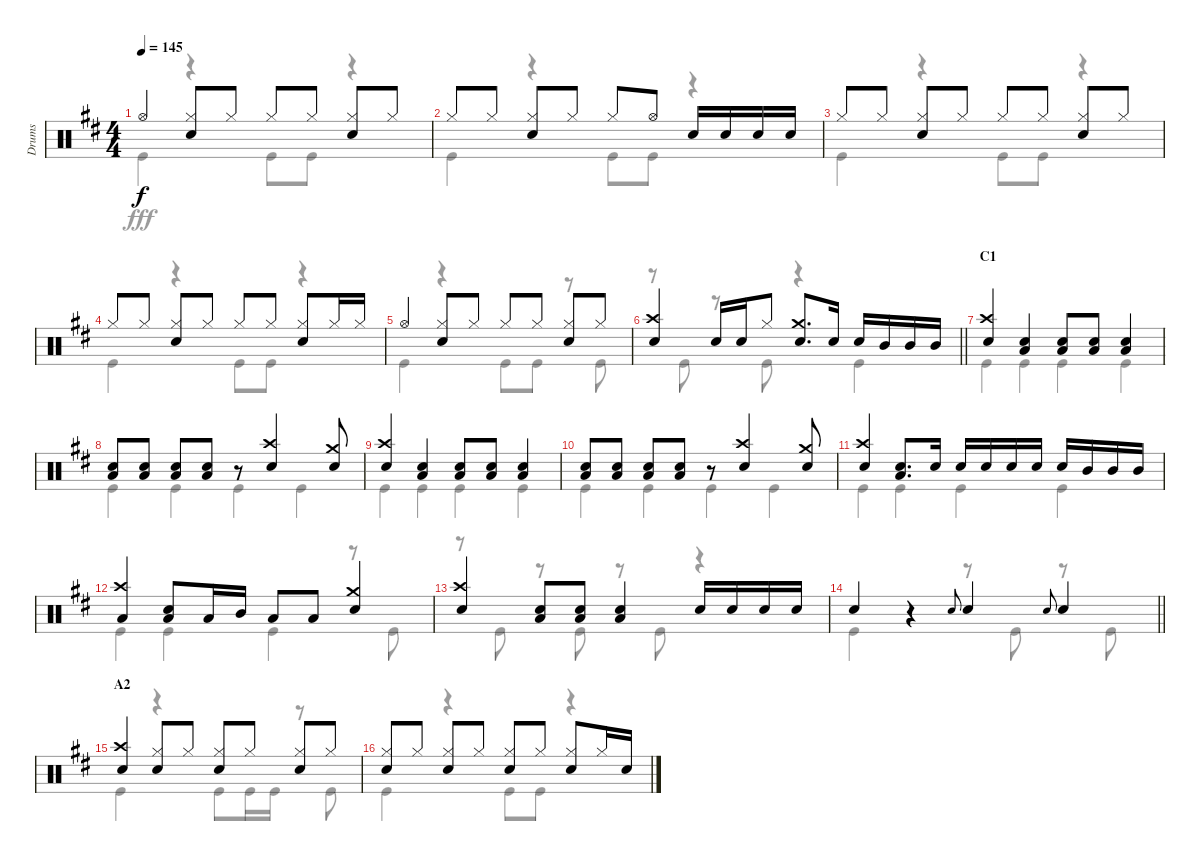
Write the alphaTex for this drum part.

\track ("Drums" "Drums") {instrument percussion}
\staff {score}
\articulation defaults
\voice
\ts (4 4)
\tempo 145
\clef neutral
\ks d "Hi-Hat (open)".4{dy f}
("Hi-Hat (closed)" "Snare (hit) 2").8 "Hi-Hat (closed)".8 "Hi-Hat (closed)".8 "Hi-Hat (closed)".8 ("Hi-Hat (closed)" "Snare (hit) 2").8 "Hi-Hat (closed)".8 |
"Hi-Hat (closed)".8 "Hi-Hat (closed)".8 ("Hi-Hat (closed)" "Snare (hit) 2").8 "Hi-Hat (closed)".8 "Hi-Hat (closed)".8 "Hi-Hat (open)".8 "Snare (hit) 2".16 "Snare (hit) 2".16 "Snare (hit) 2".16 "Snare (hit) 2".16 |
"Hi-Hat (closed)".8 "Hi-Hat (closed)".8 ("Hi-Hat (closed)" "Snare (hit) 2").8 "Hi-Hat (closed)".8 "Hi-Hat (closed)".8 "Hi-Hat (closed)".8 ("Hi-Hat (closed)" "Snare (hit) 2").8 "Hi-Hat (closed)".8 |
"Hi-Hat (closed)".8 "Hi-Hat (closed)".8 ("Hi-Hat (closed)" "Snare (hit) 2").8 "Hi-Hat (closed)".8 "Hi-Hat (closed)".8 "Hi-Hat (closed)".8 ("Hi-Hat (closed)" "Snare (hit) 2").8 "Hi-Hat (closed)".16 "Hi-Hat (closed)".16 |
"Hi-Hat (open)".4 ("Hi-Hat (closed)" "Snare (hit) 2").8 "Hi-Hat (closed)".8 "Hi-Hat (closed)".8 "Hi-Hat (closed)".8 ("Hi-Hat (closed)" "Snare (hit) 2").8 "Hi-Hat (closed)".8 |
\barLineRight lightlight
("Crash high (hit)" "Snare (hit) 2").4 "Snare (hit) 2".16 "Snare (hit) 2".16 "Hi-Hat (closed)".8 ("Crash medium (hit)" "Snare (hit) 2").8{d} "Snare (hit) 2".16 "Snare (hit) 2".16 "Mid Tom (hit)".16 "Mid Tom (hit)".16 "Mid Tom (hit)".16 |
\section ("" "C1")
("Crash high (hit)" "Snare (hit) 2").4 ("Snare (hit) 2" "Low Tom (hit)").4 ("Snare (hit) 2" "Low Tom (hit)").8 ("Snare (hit) 2" "Low Tom (hit)").8 ("Snare (hit) 2" "Low Tom (hit)").4 |
("Snare (hit) 2" "Low Tom (hit)").8 ("Snare (hit) 2" "Low Tom (hit)").8 ("Snare (hit) 2" "Low Tom (hit)").8 ("Snare (hit) 2" "Low Tom (hit)").8 r.8 ("Crash high (hit)" "Snare (hit) 2").4 ("Crash medium (hit)" "Snare (hit) 2").8 |
("Crash high (hit)" "Snare (hit) 2").4 ("Snare (hit) 2" "Low Tom (hit)").4 ("Snare (hit) 2" "Low Tom (hit)").8 ("Snare (hit) 2" "Low Tom (hit)").8 ("Snare (hit) 2" "Low Tom (hit)").4 |
("Snare (hit) 2" "Low Tom (hit)").8 ("Snare (hit) 2" "Low Tom (hit)").8 ("Snare (hit) 2" "Low Tom (hit)").8 ("Snare (hit) 2" "Low Tom (hit)").8 r.8 ("Crash high (hit)" "Snare (hit) 2").4 ("Crash medium (hit)" "Snare (hit) 2").8 |
("Crash high (hit)" "Snare (hit) 2").4 ("Low Tom (hit)" "Snare (hit) 2").8{d} "Snare (hit) 2".16 "Snare (hit) 2".16 "Snare (hit) 2".16 "Snare (hit) 2".16 "Snare (hit) 2".16 "Snare (hit) 2".16 "Mid Tom (hit)".16 "Mid Tom (hit)".16 "Mid Tom (hit)".16 |
("Crash high (hit)" "Low Tom (hit)").4 ("Snare (hit) 2" "Low Tom (hit)").8 "Low Tom (hit)".16 "Mid Tom (hit)".16 "Low Tom (hit)".8 "Low Tom (hit)".8 ("Snare (hit) 2" "Crash medium (hit)").4 |
("Crash high (hit)" "Snare (hit) 2").4 ("Snare (hit) 2" "Low Tom (hit)").8 ("Snare (hit) 2" "Low Tom (hit)").8 ("Snare (hit) 2" "Low Tom (hit)").4 "Snare (hit) 2".16 "Snare (hit) 2".16 "Snare (hit) 2".16 "Snare (hit) 2".16 |
\barLineRight lightlight "Snare (hit) 2".4
r.4 "Snare (hit) 2".8{gr onbeat} "Snare (hit) 2".4 "Snare (hit) 2".8{gr onbeat} "Snare (hit) 2".4 |
\section ("" "A2")
("Crash high (hit)" "Snare (hit) 2").4 ("Hi-Hat (closed)" "Snare (hit) 2").8 "Hi-Hat (closed)".8 ("Hi-Hat (closed)" "Snare (hit) 2").8 "Hi-Hat (closed)".8 ("Hi-Hat (closed)" "Snare (hit) 2").8 "Hi-Hat (closed)".8 |
("Hi-Hat (closed)" "Snare (hit) 2").8 "Hi-Hat (closed)".8 ("Hi-Hat (closed)" "Snare (hit) 2").8 "Hi-Hat (closed)".8 ("Hi-Hat (closed)" "Snare (hit) 2").8 "Hi-Hat (closed)".8 ("Hi-Hat (closed)" "Snare (hit) 2").8 "Hi-Hat (closed)".16 "Snare (hit) 2".16
\voice
\clef neutral
\ottava regular
\simile none
\ks d "Kick (hit)".4{dy fff}
r.4 "Kick (hit)".8 "Kick (hit)".8 r.4 |
"Kick (hit)".4 r.4 "Kick (hit)".8 "Kick (hit)".8 r.4 |
"Kick (hit)".4 r.4 "Kick (hit)".8 "Kick (hit)".8 r.4 |
"Kick (hit)".4 r.4 "Kick (hit)".8 "Kick (hit)".8 r.4 |
"Kick (hit)".4 r.4 "Kick (hit)".8 "Kick (hit)".8 r.8 "Kick (hit)".8 |
\barLineRight lightlight
r.8 "Kick (hit)".8 r.8 "Kick (hit)".8 r.4 "Kick (hit)".4 |
"Kick (hit)".4 "Kick (hit)".4 "Kick (hit)".4 "Kick (hit)".4 |
"Kick (hit)".4 "Kick (hit)".4 "Kick (hit)".4 "Kick (hit)".4 |
"Kick (hit)".4 "Kick (hit)".4 "Kick (hit)".4 "Kick (hit)".4 |
"Kick (hit)".4 "Kick (hit)".4 "Kick (hit)".4 "Kick (hit)".4 |
"Kick (hit)".4 "Kick (hit)".4 "Kick (hit)".4 "Kick (hit)".4 |
"Kick (hit)".4 "Kick (hit)".4 "Kick (hit)".4 r.8 "Kick (hit)".8 |
r.8 "Kick (hit)".8 r.8 "Kick (hit)".8 r.8 "Kick (hit)".8 r.4 |
\barLineRight lightlight "Kick (hit)".4
r.4 r.8 "Kick (hit)".8 r.8 "Kick (hit)".8 |
"Kick (hit)".4 r.4 "Kick (hit)".8 "Kick (hit)".16 "Kick (hit)".16 r.8 "Kick (hit)".8 |
"Kick (hit)".4 r.4 "Kick (hit)".8 "Kick (hit)".8 r.4
